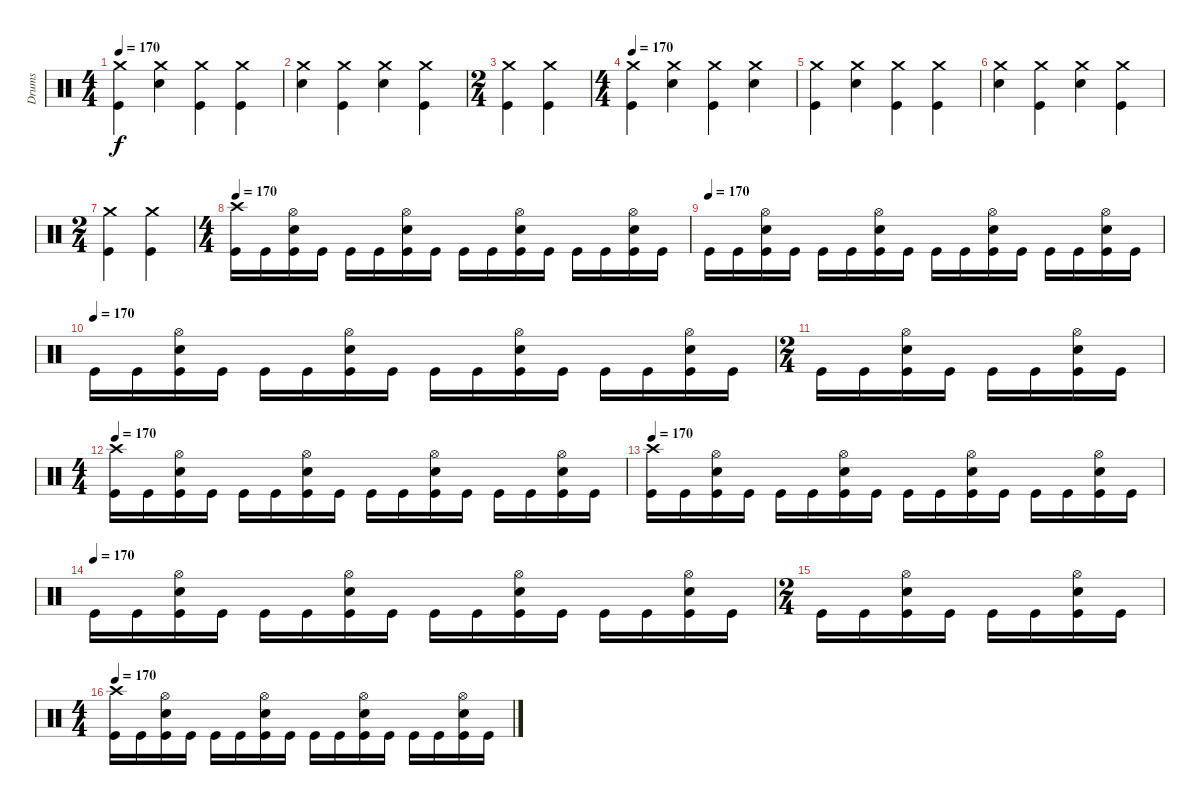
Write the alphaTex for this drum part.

\track ("Drums" "Drums") {instrument percussion}
\staff {score}
\articulation defaults
\ts (4 4)
\tempo 170
\clef neutral
\ks c
("Kick (hit)" "Crash medium (hit)").4{dy f} ("Snare (hit) 2" "Crash medium (hit)").4 ("Kick (hit)" "Crash medium (hit)").4 ("Kick (hit)" "Crash medium (hit)").4 |
("Snare (hit) 2" "Crash medium (hit)").4 ("Kick (hit)" "Crash medium (hit)").4 ("Snare (hit) 2" "Crash medium (hit)").4 ("Kick (hit)" "Crash medium (hit)").4 |
\ts (2 4)
("Kick (hit)" "Crash medium (hit)").4 ("Kick (hit)" "Crash medium (hit)").4 |
\ts (4 4)
\tempo 170
("Kick (hit)" "Crash medium (hit)").4 ("Snare (hit) 2" "Crash medium (hit)").4 ("Kick (hit)" "Crash medium (hit)").4 ("Snare (hit) 2" "Crash medium (hit)").4 |
("Kick (hit)" "Crash medium (hit)").4 ("Snare (hit) 2" "Crash medium (hit)").4 ("Kick (hit)" "Crash medium (hit)").4 ("Kick (hit)" "Crash medium (hit)").4 |
("Snare (hit) 2" "Crash medium (hit)").4 ("Kick (hit)" "Crash medium (hit)").4 ("Snare (hit) 2" "Crash medium (hit)").4 ("Kick (hit)" "Crash medium (hit)").4 |
\ts (2 4)
("Kick (hit)" "Crash medium (hit)").4 ("Kick (hit)" "Crash medium (hit)").4 |
\ts (4 4)
\tempo 170
("Kick (hit)" "Crash high (hit)").16 "Kick (hit)".16 ("Kick (hit)" "Snare (hit) 2" "Hi-Hat (open)").16 "Kick (hit)".16 "Kick (hit)".16 "Kick (hit)".16 ("Kick (hit)" "Snare (hit) 2" "Hi-Hat (open)").16 "Kick (hit)".16 "Kick (hit)".16 "Kick (hit)".16 ("Kick (hit)" "Snare (hit) 2" "Hi-Hat (open)").16 "Kick (hit)".16 "Kick (hit)".16 "Kick (hit)".16 ("Kick (hit)" "Snare (hit) 2" "Hi-Hat (open)").16 "Kick (hit)".16 |
\tempo (170)
"Kick (hit)".16 "Kick (hit)".16 ("Kick (hit)" "Snare (hit) 2" "Hi-Hat (open)").16 "Kick (hit)".16 "Kick (hit)".16 "Kick (hit)".16 ("Kick (hit)" "Snare (hit) 2" "Hi-Hat (open)").16 "Kick (hit)".16 "Kick (hit)".16 "Kick (hit)".16 ("Kick (hit)" "Snare (hit) 2" "Hi-Hat (open)").16 "Kick (hit)".16 "Kick (hit)".16 "Kick (hit)".16 ("Kick (hit)" "Snare (hit) 2" "Hi-Hat (open)").16 "Kick (hit)".16 |
\tempo (170)
"Kick (hit)".16 "Kick (hit)".16 ("Kick (hit)" "Snare (hit) 2" "Hi-Hat (open)").16 "Kick (hit)".16 "Kick (hit)".16 "Kick (hit)".16 ("Kick (hit)" "Snare (hit) 2" "Hi-Hat (open)").16 "Kick (hit)".16 "Kick (hit)".16 "Kick (hit)".16 ("Kick (hit)" "Snare (hit) 2" "Hi-Hat (open)").16 "Kick (hit)".16 "Kick (hit)".16 "Kick (hit)".16 ("Kick (hit)" "Snare (hit) 2" "Hi-Hat (open)").16 "Kick (hit)".16 |
\ts (2 4)
"Kick (hit)".16 "Kick (hit)".16 ("Kick (hit)" "Snare (hit) 2" "Hi-Hat (open)").16 "Kick (hit)".16 "Kick (hit)".16 "Kick (hit)".16 ("Kick (hit)" "Snare (hit) 2" "Hi-Hat (open)").16 "Kick (hit)".16 |
\ts (4 4)
\tempo 170
("Kick (hit)" "Crash high (hit)").16 "Kick (hit)".16 ("Kick (hit)" "Snare (hit) 2" "Hi-Hat (open)").16 "Kick (hit)".16 "Kick (hit)".16 "Kick (hit)".16 ("Kick (hit)" "Snare (hit) 2" "Hi-Hat (open)").16 "Kick (hit)".16 "Kick (hit)".16 "Kick (hit)".16 ("Kick (hit)" "Snare (hit) 2" "Hi-Hat (open)").16 "Kick (hit)".16 "Kick (hit)".16 "Kick (hit)".16 ("Kick (hit)" "Snare (hit) 2" "Hi-Hat (open)").16 "Kick (hit)".16 |
\tempo 170
("Kick (hit)" "Crash high (hit)").16 "Kick (hit)".16 ("Kick (hit)" "Snare (hit) 2" "Hi-Hat (open)").16 "Kick (hit)".16 "Kick (hit)".16 "Kick (hit)".16 ("Kick (hit)" "Snare (hit) 2" "Hi-Hat (open)").16 "Kick (hit)".16 "Kick (hit)".16 "Kick (hit)".16 ("Kick (hit)" "Snare (hit) 2" "Hi-Hat (open)").16 "Kick (hit)".16 "Kick (hit)".16 "Kick (hit)".16 ("Kick (hit)" "Snare (hit) 2" "Hi-Hat (open)").16 "Kick (hit)".16 |
\tempo (170)
"Kick (hit)".16 "Kick (hit)".16 ("Kick (hit)" "Snare (hit) 2" "Hi-Hat (open)").16 "Kick (hit)".16 "Kick (hit)".16 "Kick (hit)".16 ("Kick (hit)" "Snare (hit) 2" "Hi-Hat (open)").16 "Kick (hit)".16 "Kick (hit)".16 "Kick (hit)".16 ("Kick (hit)" "Snare (hit) 2" "Hi-Hat (open)").16 "Kick (hit)".16 "Kick (hit)".16 "Kick (hit)".16 ("Kick (hit)" "Snare (hit) 2" "Hi-Hat (open)").16 "Kick (hit)".16 |
\ts (2 4)
"Kick (hit)".16 "Kick (hit)".16 ("Kick (hit)" "Snare (hit) 2" "Hi-Hat (open)").16 "Kick (hit)".16 "Kick (hit)".16 "Kick (hit)".16 ("Kick (hit)" "Snare (hit) 2" "Hi-Hat (open)").16 "Kick (hit)".16 |
\ts (4 4)
\tempo 170
("Kick (hit)" "Crash high (hit)").16 "Kick (hit)".16 ("Kick (hit)" "Snare (hit) 2" "Hi-Hat (open)").16 "Kick (hit)".16 "Kick (hit)".16 "Kick (hit)".16 ("Kick (hit)" "Snare (hit) 2" "Hi-Hat (open)").16 "Kick (hit)".16 "Kick (hit)".16 "Kick (hit)".16 ("Kick (hit)" "Snare (hit) 2" "Hi-Hat (open)").16 "Kick (hit)".16 "Kick (hit)".16 "Kick (hit)".16 ("Kick (hit)" "Snare (hit) 2" "Hi-Hat (open)").16 "Kick (hit)".16
